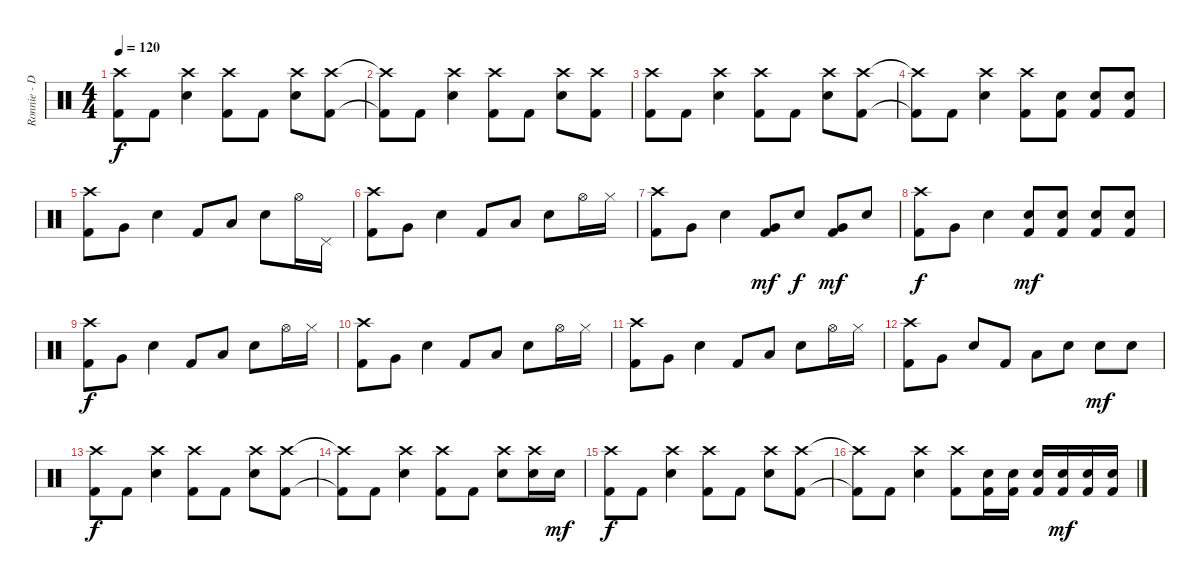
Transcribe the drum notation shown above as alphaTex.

\track ("Ronnie - Drums" "Ronnie - D") {instrument percussion}
\staff {score}
\articulation defaults
\ts (4 4)
\tempo 120
\clef neutral
\ks c
("Crash high (hit)" "Kick (hit) 2").8{dy f} "Kick (hit) 2".8 ("Crash high (hit)" "Snare (hit) 2").4 ("Crash high (hit)" "Kick (hit) 2").8 "Kick (hit) 2".8 ("Crash high (hit)" "Snare (hit) 2").8 ("Crash high (hit)" "Kick (hit) 2").8 |
("Crash high (hit)"{t} "Kick (hit) 2"{t}).8 "Kick (hit) 2".8 ("Crash high (hit)" "Snare (hit) 2").4 ("Crash high (hit)" "Kick (hit) 2").8 "Kick (hit) 2".8 ("Crash high (hit)" "Snare (hit) 2").8 ("Crash high (hit)" "Kick (hit) 2").8 |
("Crash high (hit)" "Kick (hit) 2").8 "Kick (hit) 2".8 ("Crash high (hit)" "Snare (hit) 2").4 ("Crash high (hit)" "Kick (hit) 2").8 "Kick (hit) 2".8 ("Crash high (hit)" "Snare (hit) 2").8 ("Crash high (hit)" "Kick (hit) 2").8 |
("Crash high (hit)"{t} "Kick (hit) 2"{t}).8 "Kick (hit) 2".8 ("Crash high (hit)" "Snare (hit) 2").4 ("Crash high (hit)" "Kick (hit) 2").8 ("Kick (hit) 2" "Snare (hit) 2").8 ("Kick (hit) 2" "Snare (hit) 2").8 ("Kick (hit) 2" "Snare (hit) 2").8 |
("Crash high (hit)" "Kick (hit) 2").8 "Very Low Tom (hit)".8 "Snare (hit) 2".4 "Kick (hit) 2".8 "Low Floor Tom (hit)".8 "Snare (hit) 2".8 "Hi-Hat (open)".16 "Pedal Hi-Hat (hit)".16 |
("Crash high (hit)" "Kick (hit) 2").8 "Very Low Tom (hit)".8 "Snare (hit) 2".4 "Kick (hit) 2".8 "Low Floor Tom (hit)".8 "Snare (hit) 2".8 "Hi-Hat (open)".16 "Hi-Hat (closed)".16 |
("Crash high (hit)" "Kick (hit) 2").8 "Very Low Tom (hit)".8 "Snare (hit) 2".4 ("Very Low Tom (hit)" "Kick (hit) 2").8{dy mf} "Snare (hit) 2".8{dy f} ("Very Low Tom (hit)" "Kick (hit) 2").8{dy mf} "Snare (hit) 2".8 |
("Crash high (hit)" "Kick (hit) 2").8{dy f} "Very Low Tom (hit)".8 "Snare (hit) 2".4 ("Kick (hit) 2" "Snare (hit) 2").8{dy mf} ("Kick (hit) 2" "Snare (hit) 2").8 ("Kick (hit) 2" "Snare (hit) 2").8 ("Kick (hit) 2" "Snare (hit) 2").8 |
("Crash high (hit)" "Kick (hit) 2").8{dy f} "Very Low Tom (hit)".8 "Snare (hit) 2".4 "Kick (hit) 2".8 "Low Floor Tom (hit)".8 "Snare (hit) 2".8 "Hi-Hat (open)".16 "Hi-Hat (closed)".16 |
("Crash high (hit)" "Kick (hit) 2").8 "Very Low Tom (hit)".8 "Snare (hit) 2".4 "Kick (hit) 2".8 "Low Floor Tom (hit)".8 "Snare (hit) 2".8 "Hi-Hat (open)".16 "Hi-Hat (closed)".16 |
("Crash high (hit)" "Kick (hit) 2").8 "Very Low Tom (hit)".8 "Snare (hit) 2".4 "Kick (hit) 2".8 "Low Floor Tom (hit)".8 "Snare (hit) 2".8 "Hi-Hat (open)".16 "Hi-Hat (closed)".16 |
("Crash high (hit)" "Kick (hit) 2").8 "Very Low Tom (hit)".8 "Snare (hit) 2".8 "Kick (hit) 2".8 "Low Floor Tom (hit)".8 "Snare (hit) 2".8 "Snare (hit) 2".8{dy mf} "Snare (hit) 2".8 |
("Crash high (hit)" "Kick (hit) 2").8{dy f} "Kick (hit) 2".8 ("Crash high (hit)" "Snare (hit) 2").4 ("Crash high (hit)" "Kick (hit) 2").8 "Kick (hit) 2".8 ("Crash high (hit)" "Snare (hit) 2").8 ("Crash high (hit)" "Kick (hit) 2").8 |
("Crash high (hit)"{t} "Kick (hit) 2"{t}).8 "Kick (hit) 2".8 ("Crash high (hit)" "Snare (hit) 2").4 ("Crash high (hit)" "Kick (hit) 2").8 "Kick (hit) 2".8 ("Crash high (hit)" "Snare (hit) 2").8 ("Crash high (hit)" "Snare (hit) 2").16 "Snare (hit) 2".16{dy mf} |
("Crash high (hit)" "Kick (hit) 2").8{dy f} "Kick (hit) 2".8 ("Crash high (hit)" "Snare (hit) 2").4 ("Crash high (hit)" "Kick (hit) 2").8 "Kick (hit) 2".8 ("Crash high (hit)" "Snare (hit) 2").8 ("Crash high (hit)" "Kick (hit) 2").8 |
("Crash high (hit)"{t} "Kick (hit) 2"{t}).8 "Kick (hit) 2".8 ("Crash high (hit)" "Snare (hit) 2").4 ("Crash high (hit)" "Kick (hit) 2").8 ("Kick (hit) 2" "Snare (hit) 2").16 ("Kick (hit) 2" "Snare (hit) 2").16 ("Kick (hit) 2" "Snare (hit) 2").16 ("Kick (hit) 2" "Snare (hit) 2").16{dy mf} ("Kick (hit) 2" "Snare (hit) 2").16 ("Kick (hit) 2" "Snare (hit) 2").16
